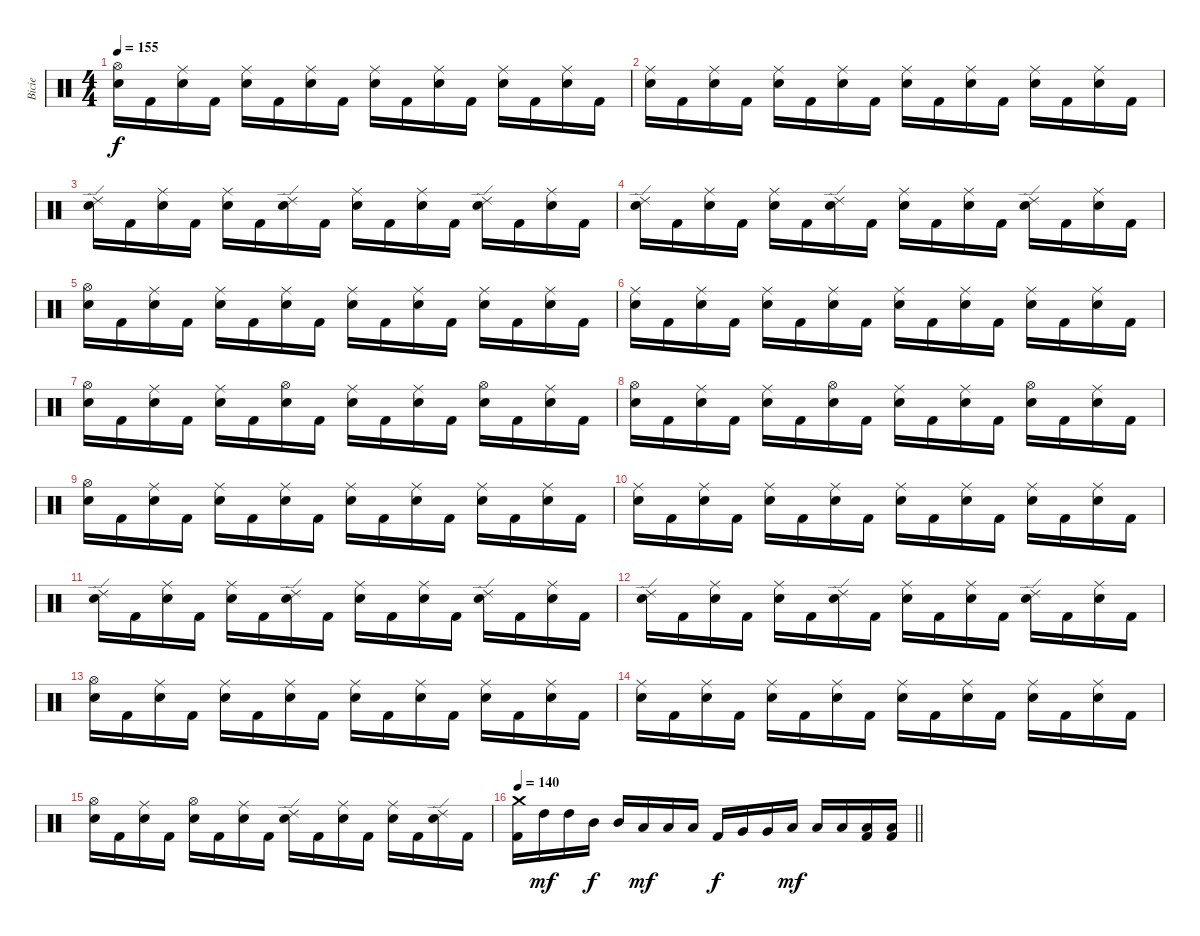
\track ("Bicie" "Bicie") {instrument percussion}
\staff {score}
\articulation defaults
\ts (4 4)
\tempo 155
\clef neutral
\ks c
("Hi-Hat (open)" "Snare (hit) 2").16{dy f} "Kick (hit) 2".16 ("Ride (middle)" "Snare (hit) 2").16 "Kick (hit) 2".16 ("Ride (middle)" "Snare (hit) 2").16 "Kick (hit) 2".16 ("Ride (middle)" "Snare (hit) 2").16 "Kick (hit) 2".16 ("Ride (middle)" "Snare (hit) 2").16 "Kick (hit) 2".16 ("Ride (middle)" "Snare (hit) 2").16 "Kick (hit) 2".16 ("Ride (middle)" "Snare (hit) 2").16 "Kick (hit) 2".16 ("Ride (middle)" "Snare (hit) 2").16 "Kick (hit) 2".16 |
("Ride (middle)" "Snare (hit) 2").16 "Kick (hit) 2".16 ("Ride (middle)" "Snare (hit) 2").16 "Kick (hit) 2".16 ("Ride (middle)" "Snare (hit) 2").16 "Kick (hit) 2".16 ("Ride (middle)" "Snare (hit) 2").16 "Kick (hit) 2".16 ("Ride (middle)" "Snare (hit) 2").16 "Kick (hit) 2".16 ("Ride (middle)" "Snare (hit) 2").16 "Kick (hit) 2".16 ("Ride (middle)" "Snare (hit) 2").16 "Kick (hit) 2".16 ("Ride (middle)" "Snare (hit) 2").16 "Kick (hit) 2".16 |
("Ride (edge) 2" "Snare (hit) 2").16 "Kick (hit) 2".16 ("Ride (middle)" "Snare (hit) 2").16 "Kick (hit) 2".16 ("Ride (middle)" "Snare (hit) 2").16 "Kick (hit) 2".16 ("Ride (edge) 2" "Snare (hit) 2").16 "Kick (hit) 2".16 ("Ride (middle)" "Snare (hit) 2").16 "Kick (hit) 2".16 ("Ride (middle)" "Snare (hit) 2").16 "Kick (hit) 2".16 ("Ride (edge) 2" "Snare (hit) 2").16 "Kick (hit) 2".16 ("Ride (middle)" "Snare (hit) 2").16 "Kick (hit) 2".16 |
("Ride (edge) 2" "Snare (hit) 2").16 "Kick (hit) 2".16 ("Ride (middle)" "Snare (hit) 2").16 "Kick (hit) 2".16 ("Ride (middle)" "Snare (hit) 2").16 "Kick (hit) 2".16 ("Ride (edge) 2" "Snare (hit) 2").16 "Kick (hit) 2".16 ("Ride (middle)" "Snare (hit) 2").16 "Kick (hit) 2".16 ("Ride (middle)" "Snare (hit) 2").16 "Kick (hit) 2".16 ("Ride (edge) 2" "Snare (hit) 2").16 "Kick (hit) 2".16 ("Ride (middle)" "Snare (hit) 2").16 "Kick (hit) 2".16 |
("Hi-Hat (open)" "Snare (hit) 2").16 "Kick (hit) 2".16 ("Ride (middle)" "Snare (hit) 2").16 "Kick (hit) 2".16 ("Ride (middle)" "Snare (hit) 2").16 "Kick (hit) 2".16 ("Ride (middle)" "Snare (hit) 2").16 "Kick (hit) 2".16 ("Ride (middle)" "Snare (hit) 2").16 "Kick (hit) 2".16 ("Ride (middle)" "Snare (hit) 2").16 "Kick (hit) 2".16 ("Ride (middle)" "Snare (hit) 2").16 "Kick (hit) 2".16 ("Ride (middle)" "Snare (hit) 2").16 "Kick (hit) 2".16 |
("Ride (middle)" "Snare (hit) 2").16 "Kick (hit) 2".16 ("Ride (middle)" "Snare (hit) 2").16 "Kick (hit) 2".16 ("Ride (middle)" "Snare (hit) 2").16 "Kick (hit) 2".16 ("Ride (middle)" "Snare (hit) 2").16 "Kick (hit) 2".16 ("Ride (middle)" "Snare (hit) 2").16 "Kick (hit) 2".16 ("Ride (middle)" "Snare (hit) 2").16 "Kick (hit) 2".16 ("Ride (middle)" "Snare (hit) 2").16 "Kick (hit) 2".16 ("Ride (middle)" "Snare (hit) 2").16 "Kick (hit) 2".16 |
("Hi-Hat (open)" "Snare (hit) 2").16 "Kick (hit) 2".16 ("Ride (middle)" "Snare (hit) 2").16 "Kick (hit) 2".16 ("Ride (middle)" "Snare (hit) 2").16 "Kick (hit) 2".16 ("Hi-Hat (open)" "Snare (hit) 2").16 "Kick (hit) 2".16 ("Ride (middle)" "Snare (hit) 2").16 "Kick (hit) 2".16 ("Ride (middle)" "Snare (hit) 2").16 "Kick (hit) 2".16 ("Hi-Hat (open)" "Snare (hit) 2").16 "Kick (hit) 2".16 ("Ride (middle)" "Snare (hit) 2").16 "Kick (hit) 2".16 |
("Hi-Hat (open)" "Snare (hit) 2").16 "Kick (hit) 2".16 ("Ride (middle)" "Snare (hit) 2").16 "Kick (hit) 2".16 ("Ride (middle)" "Snare (hit) 2").16 "Kick (hit) 2".16 ("Hi-Hat (open)" "Snare (hit) 2").16 "Kick (hit) 2".16 ("Ride (middle)" "Snare (hit) 2").16 "Kick (hit) 2".16 ("Ride (middle)" "Snare (hit) 2").16 "Kick (hit) 2".16 ("Hi-Hat (open)" "Snare (hit) 2").16 "Kick (hit) 2".16 ("Ride (middle)" "Snare (hit) 2").16 "Kick (hit) 2".16 |
("Hi-Hat (open)" "Snare (hit) 2").16 "Kick (hit) 2".16 ("Ride (middle)" "Snare (hit) 2").16 "Kick (hit) 2".16 ("Ride (middle)" "Snare (hit) 2").16 "Kick (hit) 2".16 ("Ride (middle)" "Snare (hit) 2").16 "Kick (hit) 2".16 ("Ride (middle)" "Snare (hit) 2").16 "Kick (hit) 2".16 ("Ride (middle)" "Snare (hit) 2").16 "Kick (hit) 2".16 ("Ride (middle)" "Snare (hit) 2").16 "Kick (hit) 2".16 ("Ride (middle)" "Snare (hit) 2").16 "Kick (hit) 2".16 |
("Ride (middle)" "Snare (hit) 2").16 "Kick (hit) 2".16 ("Ride (middle)" "Snare (hit) 2").16 "Kick (hit) 2".16 ("Ride (middle)" "Snare (hit) 2").16 "Kick (hit) 2".16 ("Ride (middle)" "Snare (hit) 2").16 "Kick (hit) 2".16 ("Ride (middle)" "Snare (hit) 2").16 "Kick (hit) 2".16 ("Ride (middle)" "Snare (hit) 2").16 "Kick (hit) 2".16 ("Ride (middle)" "Snare (hit) 2").16 "Kick (hit) 2".16 ("Ride (middle)" "Snare (hit) 2").16 "Kick (hit) 2".16 |
("Ride (edge) 2" "Snare (hit) 2").16 "Kick (hit) 2".16 ("Ride (middle)" "Snare (hit) 2").16 "Kick (hit) 2".16 ("Ride (middle)" "Snare (hit) 2").16 "Kick (hit) 2".16 ("Ride (edge) 2" "Snare (hit) 2").16 "Kick (hit) 2".16 ("Ride (middle)" "Snare (hit) 2").16 "Kick (hit) 2".16 ("Ride (middle)" "Snare (hit) 2").16 "Kick (hit) 2".16 ("Ride (edge) 2" "Snare (hit) 2").16 "Kick (hit) 2".16 ("Ride (middle)" "Snare (hit) 2").16 "Kick (hit) 2".16 |
("Ride (edge) 2" "Snare (hit) 2").16 "Kick (hit) 2".16 ("Ride (middle)" "Snare (hit) 2").16 "Kick (hit) 2".16 ("Ride (middle)" "Snare (hit) 2").16 "Kick (hit) 2".16 ("Ride (edge) 2" "Snare (hit) 2").16 "Kick (hit) 2".16 ("Ride (middle)" "Snare (hit) 2").16 "Kick (hit) 2".16 ("Ride (middle)" "Snare (hit) 2").16 "Kick (hit) 2".16 ("Ride (edge) 2" "Snare (hit) 2").16 "Kick (hit) 2".16 ("Ride (middle)" "Snare (hit) 2").16 "Kick (hit) 2".16 |
("Hi-Hat (open)" "Snare (hit) 2").16 "Kick (hit) 2".16 ("Ride (middle)" "Snare (hit) 2").16 "Kick (hit) 2".16 ("Ride (middle)" "Snare (hit) 2").16 "Kick (hit) 2".16 ("Ride (middle)" "Snare (hit) 2").16 "Kick (hit) 2".16 ("Ride (middle)" "Snare (hit) 2").16 "Kick (hit) 2".16 ("Ride (middle)" "Snare (hit) 2").16 "Kick (hit) 2".16 ("Ride (middle)" "Snare (hit) 2").16 "Kick (hit) 2".16 ("Ride (middle)" "Snare (hit) 2").16 "Kick (hit) 2".16 |
("Ride (middle)" "Snare (hit) 2").16 "Kick (hit) 2".16 ("Ride (middle)" "Snare (hit) 2").16 "Kick (hit) 2".16 ("Ride (middle)" "Snare (hit) 2").16 "Kick (hit) 2".16 ("Ride (middle)" "Snare (hit) 2").16 "Kick (hit) 2".16 ("Ride (middle)" "Snare (hit) 2").16 "Kick (hit) 2".16 ("Ride (middle)" "Snare (hit) 2").16 "Kick (hit) 2".16 ("Ride (middle)" "Snare (hit) 2").16 "Kick (hit) 2".16 ("Ride (middle)" "Snare (hit) 2").16 "Kick (hit) 2".16 |
("Hi-Hat (open)" "Snare (hit) 2").16 "Kick (hit) 2".16 ("Ride (middle)" "Snare (hit) 2").16 "Kick (hit) 2".16 ("Hi-Hat (open)" "Snare (hit) 2").16 "Kick (hit) 2".16 ("Ride (middle)" "Snare (hit) 2").16 "Kick (hit) 2".16 ("Ride (edge) 2" "Snare (hit) 2").16 "Kick (hit) 2".16 ("Ride (middle)" "Snare (hit) 2").16 "Kick (hit) 2".16 ("Ride (middle)" "Snare (hit) 2").16 "Kick (hit) 2".16 ("Ride (edge) 2" "Snare (hit) 2").16 "Kick (hit) 2".16 |
\tempo 140
\barLineRight lightlight
("Crash medium (hit)" "Kick (hit) 2").16 "High Tom (hit)".16{dy mf} "High Tom (hit)".16 "Mid Tom (hit)".16{dy f} "Mid Tom (hit)".16 "Low Tom (hit)".16{dy mf} "Low Tom (hit)".16 "Low Tom (hit)".16 "Kick (hit) 2".16{dy f} "Very Low Tom (hit)".16 "Very Low Tom (hit)".16 "Low Floor Tom (hit)".16{dy mf} "Low Floor Tom (hit)".16 "Low Floor Tom (hit)".16 ("Low Floor Tom (hit)" "Kick (hit) 2").16 ("Low Floor Tom (hit)" "Kick (hit) 2").16
